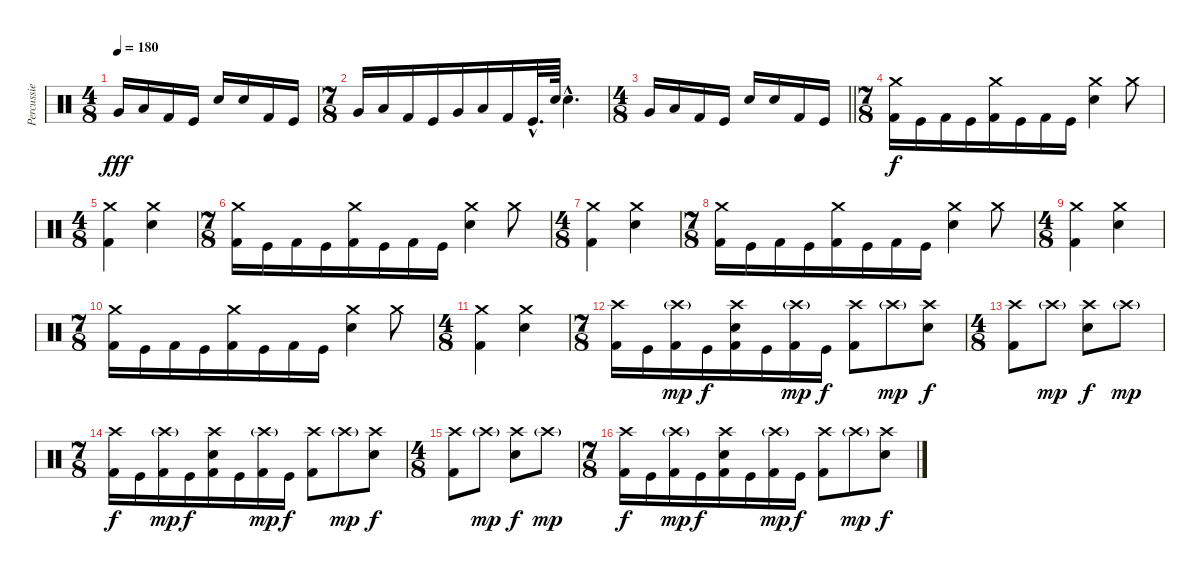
\track ("Percussie" "Percussie") {instrument percussion}
\staff {score}
\articulation defaults
\ts (4 8)
\tempo 180
\clef neutral
\ks c "Very Low Tom (hit)".16{dy fff} "Low Floor Tom (hit)".16 "Kick (hit) 2".16 "Kick (hit)".16 "Snare (hit) 2".16 "Snare (hit) 2".16 "Kick (hit) 2".16 "Kick (hit)".16
|
\ts (7 8)
"Very Low Tom (hit)".16 "Low Floor Tom (hit)".16 "Kick (hit) 2".16 "Kick (hit)".16 "Very Low Tom (hit)".16 "Low Floor Tom (hit)".16 "Kick (hit) 2".16 "Kick (hit)"{hac}.32{d} "Snare (hit) 2".64 "Snare (hit) 2"{hac}.4{d} |
\ts (4 8)
\barLineRight lightlight "Very Low Tom (hit)".16 "Low Floor Tom (hit)".16 "Kick (hit) 2".16 "Kick (hit)".16 "Snare (hit) 2".16 "Snare (hit) 2".16 "Kick (hit) 2".16 "Kick (hit)".16
|
\ts (7 8)
("Crash medium (hit)" "Kick (hit) 2").16{dy f} "Kick (hit)".16 "Kick (hit) 2".16 "Kick (hit)".16 ("Crash medium (hit)" "Kick (hit) 2").16 "Kick (hit)".16 "Kick (hit) 2".16 "Kick (hit)".16 ("Crash medium (hit)" "Snare (hit) 2").4 "Crash medium (hit)".8 |
\ts (4 8)
("Crash medium (hit)" "Kick (hit) 2").4 ("Crash medium (hit)" "Snare (hit) 2").4 |
\ts (7 8)
("Crash medium (hit)" "Kick (hit) 2").16 "Kick (hit)".16 "Kick (hit) 2".16 "Kick (hit)".16 ("Crash medium (hit)" "Kick (hit) 2").16 "Kick (hit)".16 "Kick (hit) 2".16 "Kick (hit)".16 ("Crash medium (hit)" "Snare (hit) 2").4 "Crash medium (hit)".8 |
\ts (4 8)
("Crash medium (hit)" "Kick (hit) 2").4 ("Crash medium (hit)" "Snare (hit) 2").4 |
\ts (7 8)
("Crash medium (hit)" "Kick (hit) 2").16 "Kick (hit)".16 "Kick (hit) 2".16 "Kick (hit)".16 ("Crash medium (hit)" "Kick (hit) 2").16 "Kick (hit)".16 "Kick (hit) 2".16 "Kick (hit)".16 ("Crash medium (hit)" "Snare (hit) 2").4 "Crash medium (hit)".8 |
\ts (4 8)
("Crash medium (hit)" "Kick (hit) 2").4 ("Crash medium (hit)" "Snare (hit) 2").4 |
\ts (7 8)
("Crash medium (hit)" "Kick (hit) 2").16 "Kick (hit)".16 "Kick (hit) 2".16 "Kick (hit)".16 ("Crash medium (hit)" "Kick (hit) 2").16 "Kick (hit)".16 "Kick (hit) 2".16 "Kick (hit)".16 ("Crash medium (hit)" "Snare (hit) 2").4 "Crash medium (hit)".8 |
\ts (4 8)
("Crash medium (hit)" "Kick (hit) 2").4 ("Crash medium (hit)" "Snare (hit) 2").4 |
\ts (7 8)
("Crash high (hit)" "Kick (hit) 2").16 "Kick (hit)".16 ("Crash high (hit)"{g} "Kick (hit) 2").16{dy mp} "Kick (hit)".16{dy f} ("Crash high (hit)" "Snare (hit) 2" "Kick (hit) 2").16 "Kick (hit)".16 ("Crash high (hit)"{g} "Kick (hit) 2").16{dy mp} "Kick (hit)".16{dy f} ("Crash high (hit)" "Kick (hit) 2").8 "Crash high (hit)"{g}.8{dy mp} ("Crash high (hit)" "Snare (hit) 2").8{dy f} |
\ts (4 8)
("Crash high (hit)" "Kick (hit) 2").8 "Crash high (hit)"{g}.8{dy mp} ("Crash high (hit)" "Snare (hit) 2").8{dy f} "Crash high (hit)"{g}.8{dy mp} |
\ts (7 8)
("Crash high (hit)" "Kick (hit) 2").16{dy f} "Kick (hit)".16 ("Crash high (hit)"{g} "Kick (hit) 2").16{dy mp} "Kick (hit)".16{dy f} ("Crash high (hit)" "Snare (hit) 2" "Kick (hit) 2").16 "Kick (hit)".16 ("Crash high (hit)"{g} "Kick (hit) 2").16{dy mp} "Kick (hit)".16{dy f} ("Crash high (hit)" "Kick (hit) 2").8 "Crash high (hit)"{g}.8{dy mp} ("Crash high (hit)" "Snare (hit) 2").8{dy f} |
\ts (4 8)
("Crash high (hit)" "Kick (hit) 2").8 "Crash high (hit)"{g}.8{dy mp} ("Crash high (hit)" "Snare (hit) 2").8{dy f} "Crash high (hit)"{g}.8{dy mp} |
\ts (7 8)
("Crash high (hit)" "Kick (hit) 2").16{dy f} "Kick (hit)".16 ("Crash high (hit)"{g} "Kick (hit) 2").16{dy mp} "Kick (hit)".16{dy f} ("Crash high (hit)" "Snare (hit) 2" "Kick (hit) 2").16 "Kick (hit)".16 ("Crash high (hit)"{g} "Kick (hit) 2").16{dy mp} "Kick (hit)".16{dy f} ("Crash high (hit)" "Kick (hit) 2").8 "Crash high (hit)"{g}.8{dy mp} ("Crash high (hit)" "Snare (hit) 2").8{dy f}
